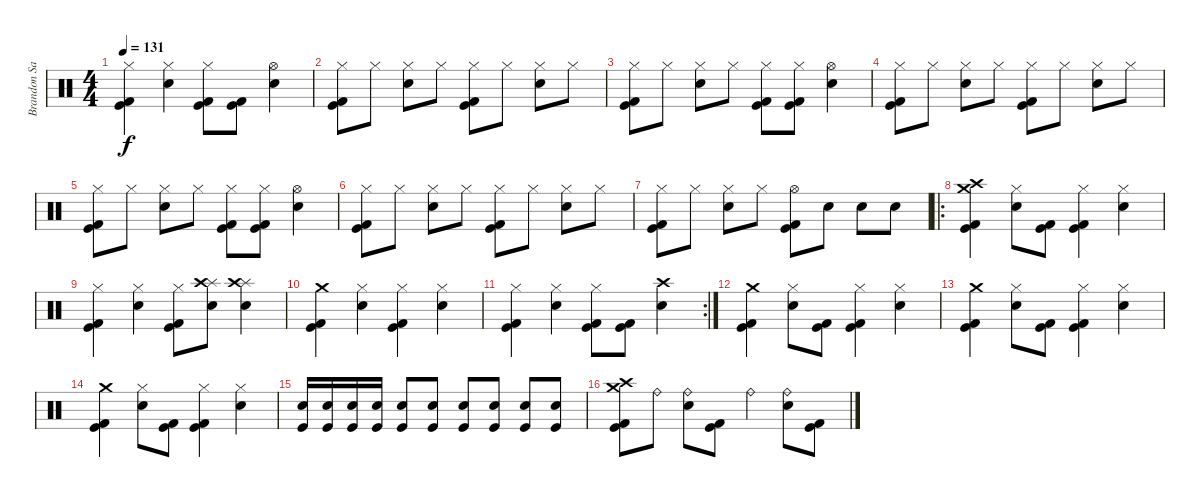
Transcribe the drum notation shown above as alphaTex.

\track ("Brandon Saller" "Brandon Sa") {instrument percussion}
\staff {score}
\articulation defaults
\ts (4 4)
\tempo 131
\clef neutral
\ks c
("Hi-Hat (closed)" "Kick (hit) 2" "Kick (hit)").4{dy f} ("Hi-Hat (closed)" "Electric Snare (hit)").4 ("Hi-Hat (closed)" "Kick (hit) 2" "Kick (hit)").8 ("Kick (hit) 2" "Kick (hit)").8 ("Hi-Hat (open)" "Electric Snare (hit)").4 |
("Hi-Hat (closed)" "Kick (hit) 2" "Kick (hit)").8 "Hi-Hat (closed)".8 ("Hi-Hat (closed)" "Electric Snare (hit)").8 "Hi-Hat (closed)".8 ("Hi-Hat (closed)" "Kick (hit)" "Kick (hit) 2").8 "Hi-Hat (closed)".8 ("Hi-Hat (closed)" "Electric Snare (hit)").8 "Hi-Hat (closed)".8 |
("Hi-Hat (closed)" "Kick (hit) 2" "Kick (hit)").8 "Hi-Hat (closed)".8 ("Hi-Hat (closed)" "Electric Snare (hit)").8 "Hi-Hat (closed)".8 ("Hi-Hat (closed)" "Kick (hit) 2" "Kick (hit)").8 ("Hi-Hat (closed)" "Kick (hit) 2" "Kick (hit)").8 ("Hi-Hat (open)" "Electric Snare (hit)").4 |
("Hi-Hat (closed)" "Kick (hit) 2" "Kick (hit)").8 "Hi-Hat (closed)".8 ("Hi-Hat (closed)" "Electric Snare (hit)").8 "Hi-Hat (closed)".8 ("Hi-Hat (closed)" "Kick (hit)" "Kick (hit) 2").8 "Hi-Hat (closed)".8 ("Hi-Hat (closed)" "Electric Snare (hit)").8 "Hi-Hat (closed)".8 |
("Hi-Hat (closed)" "Kick (hit) 2" "Kick (hit)").8 "Hi-Hat (closed)".8 ("Hi-Hat (closed)" "Electric Snare (hit)").8 "Hi-Hat (closed)".8 ("Hi-Hat (closed)" "Kick (hit) 2" "Kick (hit)").8 ("Hi-Hat (closed)" "Kick (hit) 2" "Kick (hit)").8 ("Hi-Hat (open)" "Electric Snare (hit)").4 |
("Hi-Hat (closed)" "Kick (hit) 2" "Kick (hit)").8 "Hi-Hat (closed)".8 ("Hi-Hat (closed)" "Electric Snare (hit)").8 "Hi-Hat (closed)".8 ("Hi-Hat (closed)" "Kick (hit) 2" "Kick (hit)").8 "Hi-Hat (closed)".8 ("Hi-Hat (closed)" "Electric Snare (hit)").8 "Hi-Hat (closed)".8 |
("Hi-Hat (closed)" "Kick (hit) 2" "Kick (hit)").8 "Hi-Hat (closed)".8 ("Hi-Hat (closed)" "Electric Snare (hit)").8 "Hi-Hat (closed)".8 ("Hi-Hat (open)" "Kick (hit) 2" "Kick (hit)").8 "Electric Snare (hit)".8 "Electric Snare (hit)".8 "Electric Snare (hit)".8 |
\ro
("Crash medium (hit)" "Crash high (hit)" "Kick (hit) 2" "Kick (hit)").4 ("Hi-Hat (closed)" "Electric Snare (hit)").8 ("Kick (hit) 2" "Kick (hit)").8 ("Hi-Hat (closed)" "Kick (hit) 2" "Kick (hit)").4 ("Hi-Hat (closed)" "Electric Snare (hit)").4 |
("Hi-Hat (closed)" "Kick (hit) 2" "Kick (hit)").4 ("Hi-Hat (closed)" "Electric Snare (hit)").4 ("Hi-Hat (closed)" "Kick (hit) 2" "Kick (hit)").8 ("Splash (hit)" "Crash high (hit)" "Electric Snare (hit)").8 ("Splash (hit)" "Crash high (hit)" "Electric Snare (hit)").4 |
("Crash medium (hit)" "Kick (hit) 2" "Kick (hit)").4 ("Hi-Hat (closed)" "Electric Snare (hit)").4 ("Hi-Hat (closed)" "Kick (hit)" "Kick (hit) 2").4 ("Hi-Hat (closed)" "Electric Snare (hit)").4 |
\rc 2
("Hi-Hat (closed)" "Kick (hit) 2" "Kick (hit)").4 ("Hi-Hat (closed)" "Electric Snare (hit)").4 ("Hi-Hat (closed)" "Kick (hit)" "Kick (hit) 2").8 ("Kick (hit)" "Kick (hit) 2").8 ("Crash high (hit)" "Electric Snare (hit)").4 |
("Crash medium (hit)" "Kick (hit) 2" "Kick (hit)").4 ("Hi-Hat (closed)" "Electric Snare (hit)").8 ("Kick (hit) 2" "Kick (hit)").8 ("Hi-Hat (closed)" "Kick (hit) 2" "Kick (hit)").4 ("Hi-Hat (closed)" "Electric Snare (hit)").4 |
("Crash medium (hit)" "Kick (hit) 2" "Kick (hit)").4 ("Hi-Hat (closed)" "Electric Snare (hit)").8 ("Kick (hit) 2" "Kick (hit)").8 ("Hi-Hat (closed)" "Kick (hit) 2" "Kick (hit)").4 ("Hi-Hat (closed)" "Electric Snare (hit)").4 |
("Crash medium (hit)" "Kick (hit) 2" "Kick (hit)").4 ("Hi-Hat (closed)" "Electric Snare (hit)").8 ("Kick (hit) 2" "Kick (hit)").8 ("Hi-Hat (closed)" "Kick (hit) 2" "Kick (hit)").4 ("Hi-Hat (closed)" "Electric Snare (hit)").4 |
("Electric Snare (hit)" "Kick (hit)").16 ("Electric Snare (hit)" "Kick (hit)").16 ("Electric Snare (hit)" "Kick (hit)").16 ("Electric Snare (hit)" "Kick (hit)").16 ("Electric Snare (hit)" "Kick (hit)").8 ("Electric Snare (hit)" "Kick (hit)").8 ("Electric Snare (hit)" "Kick (hit)").8 ("Electric Snare (hit)" "Kick (hit)").8 ("Electric Snare (hit)" "Kick (hit)").8 ("Electric Snare (hit)" "Kick (hit)").8 |
("Crash medium (hit)" "Crash high (hit)" "Kick (hit) 2" "Kick (hit)").8 "Ride (bell)".8 ("Ride (bell)" "Electric Snare (hit)").8 ("Kick (hit) 2" "Kick (hit)").8 "Ride (bell)".4 ("Ride (bell)" "Electric Snare (hit)").8 ("Kick (hit) 2" "Kick (hit)").8
